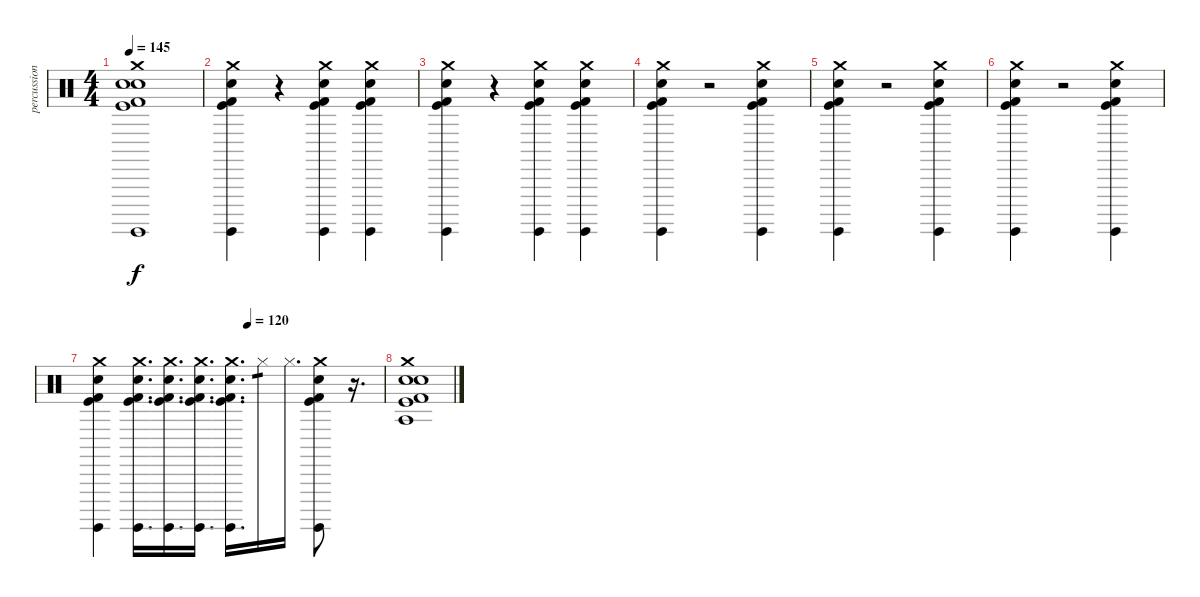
\track ("percussion" "percussion") {instrument percussion}
\staff {score}
\articulation defaults
\ts (4 4)
\tempo 145
\clef neutral
\ks c
("Crash medium (hit)" "Electric Snare (hit)" "Snare (hit) 2" "Surdo (hit)" "Kick (hit)" "Kick (hit) 2").1{dy f} |
("Crash medium (hit)" "Electric Snare (hit)" "Surdo (hit)" "Kick (hit)" "Kick (hit) 2").4 r.4 ("Crash medium (hit)" "Electric Snare (hit)" "Surdo (hit)" "Kick (hit)" "Kick (hit) 2").4 ("Crash medium (hit)" "Electric Snare (hit)" "Surdo (hit)" "Kick (hit)" "Kick (hit) 2").4 |
("Crash medium (hit)" "Electric Snare (hit)" "Surdo (hit)" "Kick (hit)" "Kick (hit) 2").4 r.4 ("Crash medium (hit)" "Electric Snare (hit)" "Surdo (hit)" "Kick (hit) 2" "Kick (hit)").4 ("Crash medium (hit)" "Electric Snare (hit)" "Surdo (hit)" "Kick (hit) 2" "Kick (hit)").4 |
("Crash medium (hit)" "Electric Snare (hit)" "Surdo (hit)" "Kick (hit)" "Kick (hit) 2").4 r.2 ("Crash medium (hit)" "Electric Snare (hit)" "Surdo (hit)" "Kick (hit) 2" "Kick (hit)").4 |
("Crash medium (hit)" "Electric Snare (hit)" "Surdo (hit)" "Kick (hit)" "Kick (hit) 2").4 r.2 ("Crash medium (hit)" "Electric Snare (hit)" "Surdo (hit)" "Kick (hit) 2" "Kick (hit)").4 |
("Crash medium (hit)" "Electric Snare (hit)" "Surdo (hit)" "Kick (hit)" "Kick (hit) 2").4 r.2 ("Crash medium (hit)" "Electric Snare (hit)" "Surdo (hit)" "Kick (hit) 2" "Kick (hit)").4 |
\tempo (120 0.53125)
("Crash medium (hit)" "Electric Snare (hit)" "Surdo (hit)" "Kick (hit)" "Kick (hit) 2").4 ("Crash medium (hit)" "Electric Snare (hit)" "Surdo (hit)" "Kick (hit) 2" "Kick (hit)").16{d} ("Crash medium (hit)" "Electric Snare (hit)" "Surdo (hit)" "Kick (hit) 2" "Kick (hit)").16{d} ("Crash medium (hit)" "Electric Snare (hit)" "Surdo (hit)" "Kick (hit) 2" "Kick (hit)").16{d} ("Crash medium (hit)" "Electric Snare (hit)" "Surdo (hit)" "Kick (hit) 2" "Kick (hit)").16{d} "Hi-Hat (closed)".16{tp 1} "Hi-Hat (closed)".16{d} ("Crash medium (hit)" "Electric Snare (hit)" "Surdo (hit)" "Kick (hit) 2" "Kick (hit)").8 r.16{d} |
("Crash medium (hit)" "Electric Snare (hit)" "Snare (hit) 2" "Agogo tow (hit)" "Kick (hit)" "Kick (hit) 2").1
